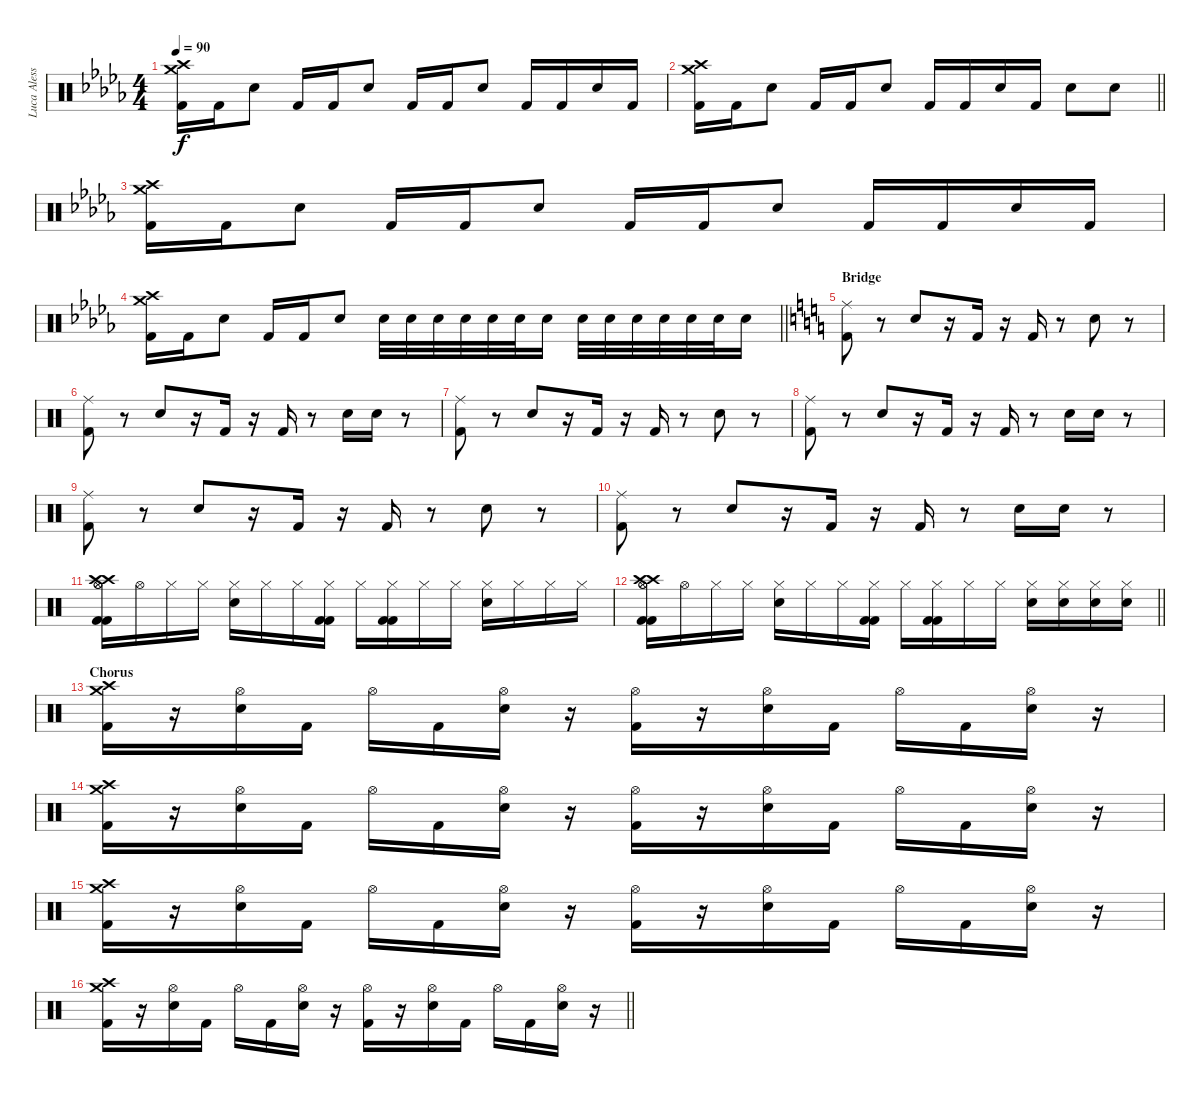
\track ("Luca Alessandrelli (Drums)" "Luca Aless") {instrument percussion}
\staff {score}
\articulation defaults
\ts (4 4)
\tempo 90
\clef neutral
\ks db
("Crash high (hit)" "Crash medium (hit)" "Kick (hit) 2").16{dy f} "Kick (hit) 2".16 "Snare (hit) 2".8 "Kick (hit) 2".16 "Kick (hit) 2".16 "Snare (hit) 2".8 "Kick (hit) 2".16 "Kick (hit) 2".16 "Snare (hit) 2".8 "Kick (hit) 2".16 "Kick (hit) 2".16 "Snare (hit) 2".16 "Kick (hit) 2".16 |
\barLineRight lightlight
("Crash high (hit)" "Crash medium (hit)" "Kick (hit) 2").16 "Kick (hit) 2".16 "Snare (hit) 2".8 "Kick (hit) 2".16 "Kick (hit) 2".16 "Snare (hit) 2".8 "Kick (hit) 2".16 "Kick (hit) 2".16 "Snare (hit) 2".16 "Kick (hit) 2".16 "Snare (hit) 2".8 "Snare (hit) 2".8 |
("Crash high (hit)" "Crash medium (hit)" "Kick (hit) 2").16 "Kick (hit) 2".16 "Snare (hit) 2".8 "Kick (hit) 2".16 "Kick (hit) 2".16 "Snare (hit) 2".8 "Kick (hit) 2".16 "Kick (hit) 2".16 "Snare (hit) 2".8 "Kick (hit) 2".16 "Kick (hit) 2".16 "Snare (hit) 2".16 "Kick (hit) 2".16 |
\barLineRight lightlight
("Crash high (hit)" "Crash medium (hit)" "Kick (hit) 2").16 "Kick (hit) 2".16 "Snare (hit) 2".8 "Kick (hit) 2".16 "Kick (hit) 2".16 "Snare (hit) 2".8 "Snare (hit) 2".32 "Snare (hit) 2".32 "Snare (hit) 2".32 "Snare (hit) 2".32 "Snare (hit) 2".32 "Snare (hit) 2".32 "Snare (hit) 2".16 "Snare (hit) 2".32 "Snare (hit) 2".32 "Snare (hit) 2".32 "Snare (hit) 2".32 "Snare (hit) 2".32 "Snare (hit) 2".32 "Snare (hit) 2".16 |
\section ("" "Bridge")
\ks c
("Ride (middle)" "Kick (hit) 2").8 r.8 "Electric Snare (hit)".8 r.16 "Kick (hit) 2".16 r.16 "Kick (hit) 2".16 r.8 "Electric Snare (hit)".8 r.8 |
("Ride (middle)" "Kick (hit) 2").8 r.8 "Electric Snare (hit)".8 r.16 "Kick (hit) 2".16 r.16 "Kick (hit) 2".16 r.8 "Electric Snare (hit)".16 "Electric Snare (hit)".16 r.8 |
("Ride (middle)" "Kick (hit) 2").8 r.8 "Electric Snare (hit)".8 r.16 "Kick (hit) 2".16 r.16 "Kick (hit) 2".16 r.8 "Electric Snare (hit)".8 r.8 |
("Ride (middle)" "Kick (hit) 2").8 r.8 "Electric Snare (hit)".8 r.16 "Kick (hit) 2".16 r.16 "Kick (hit) 2".16 r.8 "Electric Snare (hit)".16 "Electric Snare (hit)".16 r.8 |
("Ride (middle)" "Kick (hit) 2").8 r.8 "Electric Snare (hit)".8 r.16 "Kick (hit) 2".16 r.16 "Kick (hit) 2".16 r.8 "Electric Snare (hit)".8 r.8 |
("Ride (middle)" "Kick (hit) 2").8 r.8 "Electric Snare (hit)".8 r.16 "Kick (hit) 2".16 r.16 "Kick (hit) 2".16 r.8 "Electric Snare (hit)".16 "Electric Snare (hit)".16 r.8 |
("Hi-Hat (open)" "Hi-Hat (open)" "Crash high (hit)" "Crash high (hit)" "Kick (hit) 2" "Kick (hit) 2").16 "Hi-Hat (open)".16 "Hi-Hat (closed)".16 "Hi-Hat (closed)".16 ("Hi-Hat (closed)" "Electric Snare (hit)").16 "Hi-Hat (closed)".16 "Hi-Hat (closed)".16 ("Hi-Hat (closed)" "Kick (hit) 2" "Kick (hit) 2").16 "Hi-Hat (closed)".16 ("Hi-Hat (closed)" "Kick (hit) 2" "Kick (hit) 2").16 "Hi-Hat (closed)".16 "Hi-Hat (closed)".16 ("Hi-Hat (closed)" "Electric Snare (hit)").16 "Hi-Hat (closed)".16 "Hi-Hat (closed)".16 "Hi-Hat (closed)".16 |
\barLineRight lightlight
("Hi-Hat (open)" "Hi-Hat (open)" "Crash high (hit)" "Crash high (hit)" "Kick (hit) 2" "Kick (hit) 2").16 "Hi-Hat (open)".16 "Hi-Hat (closed)".16 "Hi-Hat (closed)".16 ("Hi-Hat (closed)" "Electric Snare (hit)").16 "Hi-Hat (closed)".16 "Hi-Hat (closed)".16 ("Hi-Hat (closed)" "Kick (hit) 2" "Kick (hit) 2").16 "Hi-Hat (closed)".16 ("Hi-Hat (closed)" "Kick (hit) 2" "Kick (hit) 2").16 "Hi-Hat (closed)".16 "Hi-Hat (closed)".16 ("Hi-Hat (closed)" "Electric Snare (hit)").16 ("Hi-Hat (closed)" "Electric Snare (hit)").16 ("Hi-Hat (closed)" "Electric Snare (hit)").16 ("Hi-Hat (closed)" "Electric Snare (hit)").16 |
\section ("" "Chorus")
("Crash high (hit)" "Crash medium (hit)" "Kick (hit) 2").16 r.16 ("Hi-Hat (open)" "Electric Snare (hit)").16 "Kick (hit) 2".16 "Hi-Hat (open)".16 "Kick (hit) 2".16 ("Hi-Hat (open)" "Electric Snare (hit)").16 r.16 ("Hi-Hat (open)" "Kick (hit) 2").16 r.16 ("Hi-Hat (open)" "Electric Snare (hit)").16 "Kick (hit) 2".16 "Hi-Hat (open)".16 "Kick (hit) 2".16 ("Hi-Hat (open)" "Electric Snare (hit)").16 r.16 |
("Crash high (hit)" "Crash medium (hit)" "Kick (hit) 2").16 r.16 ("Hi-Hat (open)" "Electric Snare (hit)").16 "Kick (hit) 2".16 "Hi-Hat (open)".16 "Kick (hit) 2".16 ("Hi-Hat (open)" "Electric Snare (hit)").16 r.16 ("Hi-Hat (open)" "Kick (hit) 2").16 r.16 ("Hi-Hat (open)" "Electric Snare (hit)").16 "Kick (hit) 2".16 "Hi-Hat (open)".16 "Kick (hit) 2".16 ("Hi-Hat (open)" "Electric Snare (hit)").16 r.16 |
("Crash high (hit)" "Crash medium (hit)" "Kick (hit) 2").16 r.16 ("Hi-Hat (open)" "Electric Snare (hit)").16 "Kick (hit) 2".16 "Hi-Hat (open)".16 "Kick (hit) 2".16 ("Hi-Hat (open)" "Electric Snare (hit)").16 r.16 ("Hi-Hat (open)" "Kick (hit) 2").16 r.16 ("Hi-Hat (open)" "Electric Snare (hit)").16 "Kick (hit) 2".16 "Hi-Hat (open)".16 "Kick (hit) 2".16 ("Hi-Hat (open)" "Electric Snare (hit)").16 r.16 |
\barLineRight lightlight
("Crash high (hit)" "Crash medium (hit)" "Kick (hit) 2").16 r.16 ("Hi-Hat (open)" "Electric Snare (hit)").16 "Kick (hit) 2".16 "Hi-Hat (open)".16 "Kick (hit) 2".16 ("Hi-Hat (open)" "Electric Snare (hit)").16 r.16 ("Hi-Hat (open)" "Kick (hit) 2").16 r.16 ("Hi-Hat (open)" "Electric Snare (hit)").16 "Kick (hit) 2".16 "Hi-Hat (open)".16 "Kick (hit) 2".16 ("Hi-Hat (open)" "Electric Snare (hit)").16 r.16
